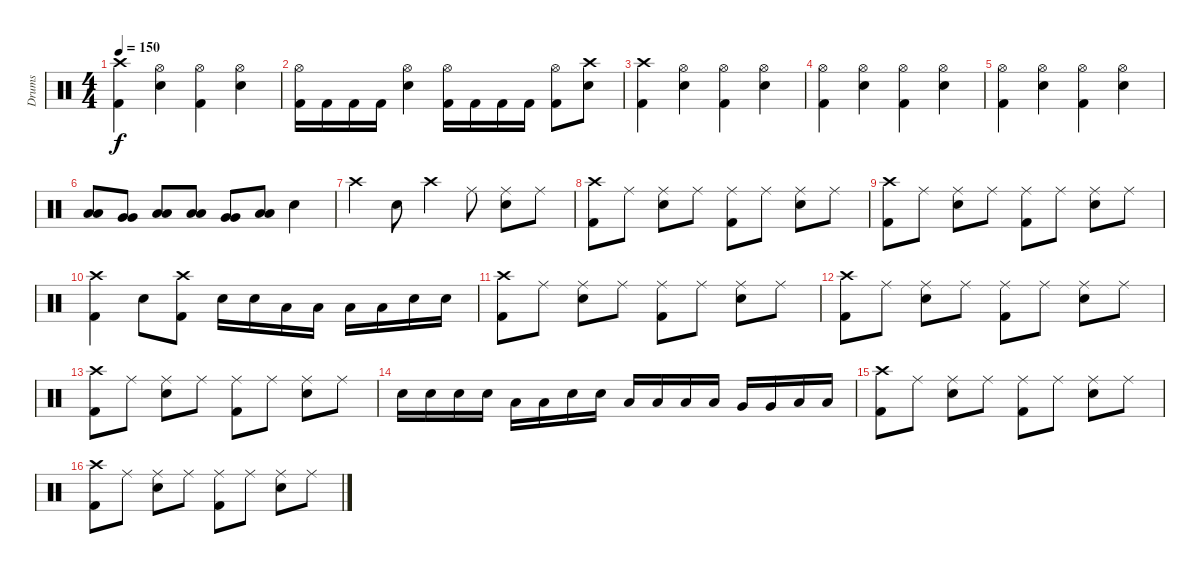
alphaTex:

\track ("Drums" "Drums") {instrument percussion}
\staff {score}
\articulation defaults
\ts (4 4)
\tempo 150
\clef neutral
\ks c
("Crash high (hit)" "Kick (hit) 2").4{dy f} ("Hi-Hat (open)" "Snare (hit) 2").4 ("Hi-Hat (open)" "Kick (hit) 2").4 ("Hi-Hat (open)" "Snare (hit) 2").4 |
("Hi-Hat (open)" "Kick (hit) 2").16 "Kick (hit) 2".16 "Kick (hit) 2".16 "Kick (hit) 2".16 ("Hi-Hat (open)" "Snare (hit) 2").4 ("Hi-Hat (open)" "Kick (hit) 2").16 "Kick (hit) 2".16 "Kick (hit) 2".16 "Kick (hit) 2".16 ("Hi-Hat (open)" "Kick (hit) 2").8 ("Crash high (hit)" "Snare (hit) 2").8 |
("Crash high (hit)" "Kick (hit) 2").4 ("Hi-Hat (open)" "Snare (hit) 2").4 ("Hi-Hat (open)" "Kick (hit) 2").4 ("Hi-Hat (open)" "Snare (hit) 2").4 |
("Hi-Hat (open)" "Kick (hit) 2").4 ("Hi-Hat (open)" "Snare (hit) 2").4 ("Hi-Hat (open)" "Kick (hit) 2").4 ("Hi-Hat (open)" "Snare (hit) 2").4 |
("Hi-Hat (open)" "Kick (hit) 2").4 ("Hi-Hat (open)" "Snare (hit) 2").4 ("Hi-Hat (open)" "Kick (hit) 2").4 ("Hi-Hat (open)" "Snare (hit) 2").4 |
("Low Tom (hit)" "Low Tom (hit)").8 ("Very Low Tom (hit)" "Very Low Tom (hit)").8 ("Low Floor Tom (hit)" "Low Floor Tom (hit)").8 ("Low Tom (hit)" "Low Tom (hit)").8 ("Very Low Tom (hit)" "Very Low Tom (hit)").8 ("Low Floor Tom (hit)" "Low Floor Tom (hit)").8 "Snare (hit) 2".4 |
"Crash high (hit)".4 "Snare (hit) 2".8 "Crash high (hit)".4 "Ride (middle)".8 ("Ride (middle)" "Snare (hit) 2").8 "Ride (middle)".8 |
("Crash high (hit)" "Kick (hit) 2").8 "Ride (middle)".8 ("Ride (middle)" "Snare (hit) 2").8 "Ride (middle)".8 ("Ride (middle)" "Kick (hit) 2").8 "Ride (middle)".8 ("Ride (middle)" "Snare (hit) 2").8 "Ride (middle)".8 |
("Crash high (hit)" "Kick (hit) 2").8 "Ride (middle)".8 ("Ride (middle)" "Snare (hit) 2").8 "Ride (middle)".8 ("Ride (middle)" "Kick (hit) 2").8 "Ride (middle)".8 ("Ride (middle)" "Snare (hit) 2").8 "Ride (middle)".8 |
("Crash high (hit)" "Kick (hit) 2").4 "Snare (hit) 2".8 ("Crash high (hit)" "Kick (hit) 2").8 "Snare (hit) 2".16 "Snare (hit) 2".16 "Low Tom (hit)".16 "Low Tom (hit)".16 "Low Tom (hit)".16 "Low Tom (hit)".16 "Snare (hit) 2".16 "Snare (hit) 2".16 |
("Crash high (hit)" "Kick (hit) 2").8 "Ride (middle)".8 ("Ride (middle)" "Snare (hit) 2").8 "Ride (middle)".8 ("Ride (middle)" "Kick (hit) 2").8 "Ride (middle)".8 ("Ride (middle)" "Snare (hit) 2").8 "Ride (middle)".8 |
("Crash high (hit)" "Kick (hit) 2").8 "Ride (middle)".8 ("Ride (middle)" "Snare (hit) 2").8 "Ride (middle)".8 ("Ride (middle)" "Kick (hit) 2").8 "Ride (middle)".8 ("Ride (middle)" "Snare (hit) 2").8 "Ride (middle)".8 |
("Crash high (hit)" "Kick (hit) 2").8 "Ride (middle)".8 ("Ride (middle)" "Snare (hit) 2").8 "Ride (middle)".8 ("Ride (middle)" "Kick (hit) 2").8 "Ride (middle)".8 ("Ride (middle)" "Snare (hit) 2").8 "Ride (middle)".8 |
"Snare (hit) 2".16 "Snare (hit) 2".16 "Snare (hit) 2".16 "Snare (hit) 2".16 "Low Tom (hit)".16 "Low Tom (hit)".16 "Snare (hit) 2".16 "Snare (hit) 2".16 "Low Tom (hit)".16 "Low Tom (hit)".16 "Low Tom (hit)".16 "Low Tom (hit)".16 "Very Low Tom (hit)".16 "Very Low Tom (hit)".16 "Low Floor Tom (hit)".16 "Low Floor Tom (hit)".16 |
("Crash high (hit)" "Kick (hit) 2").8 "Ride (middle)".8 ("Ride (middle)" "Snare (hit) 2").8 "Ride (middle)".8 ("Ride (middle)" "Kick (hit) 2").8 "Ride (middle)".8 ("Ride (middle)" "Snare (hit) 2").8 "Ride (middle)".8 |
("Crash high (hit)" "Kick (hit) 2").8 "Ride (middle)".8 ("Ride (middle)" "Snare (hit) 2").8 "Ride (middle)".8 ("Ride (middle)" "Kick (hit) 2").8 "Ride (middle)".8 ("Ride (middle)" "Snare (hit) 2").8 "Ride (middle)".8
